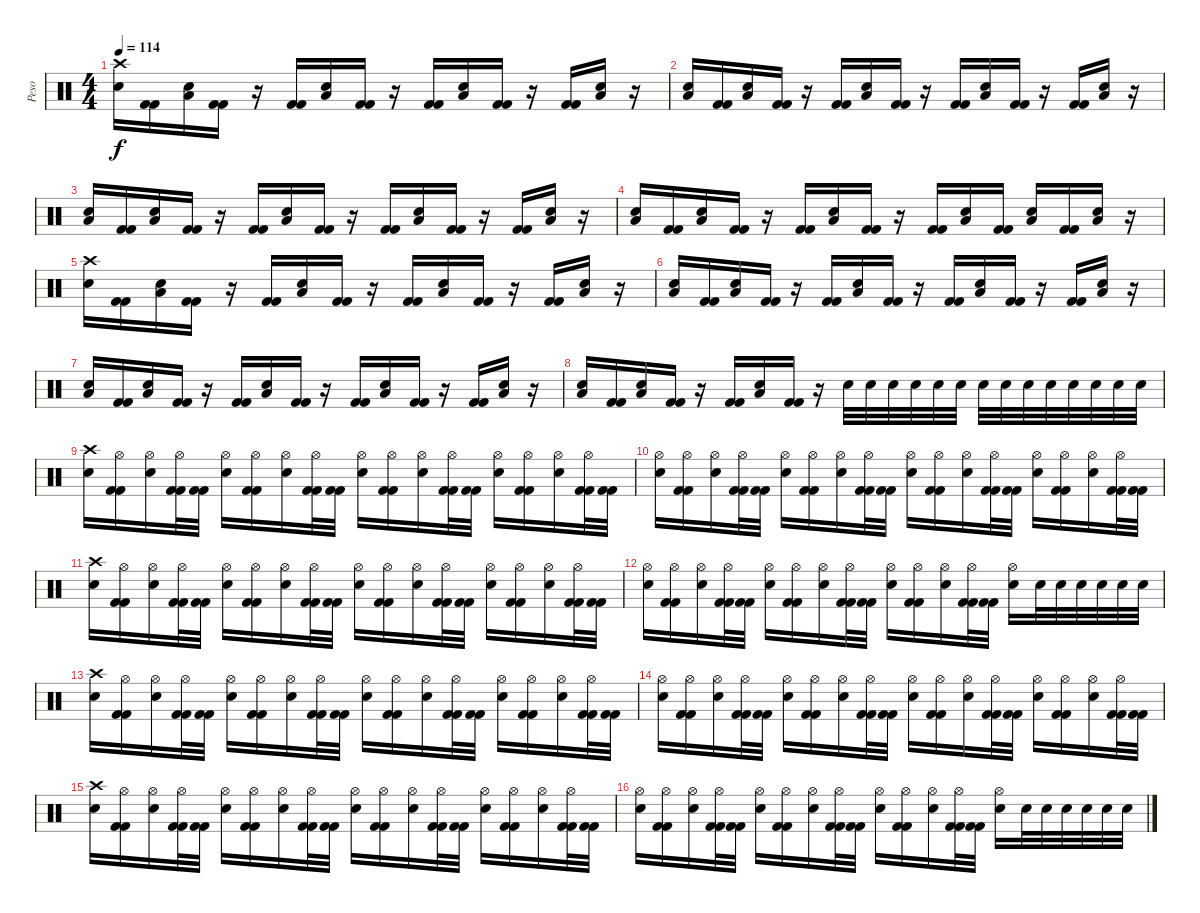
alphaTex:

\track ("Peso" "Peso") {instrument percussion}
\staff {score}
\articulation defaults
\ts (4 4)
\tempo 114
\clef neutral
\ks c
("Crash high (hit)" "Electric Snare (hit)").16{dy f} ("Kick (hit) 2" "Kick (hit) 2").16 ("Low Floor Tom (hit)" "Electric Snare (hit)").16 ("Kick (hit) 2" "Kick (hit) 2").16 r.16 ("Kick (hit) 2" "Kick (hit) 2").16 ("Low Floor Tom (hit)" "Electric Snare (hit)").16 ("Kick (hit) 2" "Kick (hit) 2").16 r.16 ("Kick (hit) 2" "Kick (hit) 2").16 ("Low Floor Tom (hit)" "Electric Snare (hit)").16 ("Kick (hit) 2" "Kick (hit) 2").16 r.16 ("Kick (hit) 2" "Kick (hit) 2").16 ("Low Floor Tom (hit)" "Electric Snare (hit)").16 r.16 |
("Low Floor Tom (hit)" "Electric Snare (hit)").16 ("Kick (hit) 2" "Kick (hit) 2").16 ("Low Floor Tom (hit)" "Electric Snare (hit)").16 ("Kick (hit) 2" "Kick (hit) 2").16 r.16 ("Kick (hit) 2" "Kick (hit) 2").16 ("Low Floor Tom (hit)" "Electric Snare (hit)").16 ("Kick (hit) 2" "Kick (hit) 2").16 r.16 ("Kick (hit) 2" "Kick (hit) 2").16 ("Low Floor Tom (hit)" "Electric Snare (hit)").16 ("Kick (hit) 2" "Kick (hit) 2").16 r.16 ("Kick (hit) 2" "Kick (hit) 2").16 ("Low Floor Tom (hit)" "Electric Snare (hit)").16 r.16 |
("Low Floor Tom (hit)" "Electric Snare (hit)").16 ("Kick (hit) 2" "Kick (hit) 2").16 ("Low Floor Tom (hit)" "Electric Snare (hit)").16 ("Kick (hit) 2" "Kick (hit) 2").16 r.16 ("Kick (hit) 2" "Kick (hit) 2").16 ("Low Floor Tom (hit)" "Electric Snare (hit)").16 ("Kick (hit) 2" "Kick (hit) 2").16 r.16 ("Kick (hit) 2" "Kick (hit) 2").16 ("Low Floor Tom (hit)" "Electric Snare (hit)").16 ("Kick (hit) 2" "Kick (hit) 2").16 r.16 ("Kick (hit) 2" "Kick (hit) 2").16 ("Low Floor Tom (hit)" "Electric Snare (hit)").16 r.16 |
("Low Floor Tom (hit)" "Electric Snare (hit)").16 ("Kick (hit) 2" "Kick (hit) 2").16 ("Low Floor Tom (hit)" "Electric Snare (hit)").16 ("Kick (hit) 2" "Kick (hit) 2").16 r.16 ("Kick (hit) 2" "Kick (hit) 2").16 ("Low Floor Tom (hit)" "Electric Snare (hit)").16 ("Kick (hit) 2" "Kick (hit) 2").16 r.16 ("Kick (hit) 2" "Kick (hit) 2").16 ("Low Floor Tom (hit)" "Electric Snare (hit)").16 ("Kick (hit) 2" "Kick (hit) 2").16 ("Low Floor Tom (hit)" "Electric Snare (hit)").16 ("Kick (hit) 2" "Kick (hit) 2").16 ("Low Floor Tom (hit)" "Electric Snare (hit)").16 r.16 |
("Crash high (hit)" "Electric Snare (hit)").16 ("Kick (hit) 2" "Kick (hit) 2").16 ("Low Floor Tom (hit)" "Electric Snare (hit)").16 ("Kick (hit) 2" "Kick (hit) 2").16 r.16 ("Kick (hit) 2" "Kick (hit) 2").16 ("Low Floor Tom (hit)" "Electric Snare (hit)").16 ("Kick (hit) 2" "Kick (hit) 2").16 r.16 ("Kick (hit) 2" "Kick (hit) 2").16 ("Low Floor Tom (hit)" "Electric Snare (hit)").16 ("Kick (hit) 2" "Kick (hit) 2").16 r.16 ("Kick (hit) 2" "Kick (hit) 2").16 ("Low Floor Tom (hit)" "Electric Snare (hit)").16 r.16 |
("Low Floor Tom (hit)" "Electric Snare (hit)").16 ("Kick (hit) 2" "Kick (hit) 2").16 ("Low Floor Tom (hit)" "Electric Snare (hit)").16 ("Kick (hit) 2" "Kick (hit) 2").16 r.16 ("Kick (hit) 2" "Kick (hit) 2").16 ("Low Floor Tom (hit)" "Electric Snare (hit)").16 ("Kick (hit) 2" "Kick (hit) 2").16 r.16 ("Kick (hit) 2" "Kick (hit) 2").16 ("Low Floor Tom (hit)" "Electric Snare (hit)").16 ("Kick (hit) 2" "Kick (hit) 2").16 r.16 ("Kick (hit) 2" "Kick (hit) 2").16 ("Low Floor Tom (hit)" "Electric Snare (hit)").16 r.16 |
("Low Floor Tom (hit)" "Electric Snare (hit)").16 ("Kick (hit) 2" "Kick (hit) 2").16 ("Low Floor Tom (hit)" "Electric Snare (hit)").16 ("Kick (hit) 2" "Kick (hit) 2").16 r.16 ("Kick (hit) 2" "Kick (hit) 2").16 ("Low Floor Tom (hit)" "Electric Snare (hit)").16 ("Kick (hit) 2" "Kick (hit) 2").16 r.16 ("Kick (hit) 2" "Kick (hit) 2").16 ("Low Floor Tom (hit)" "Electric Snare (hit)").16 ("Kick (hit) 2" "Kick (hit) 2").16 r.16 ("Kick (hit) 2" "Kick (hit) 2").16 ("Low Floor Tom (hit)" "Electric Snare (hit)").16 r.16 |
("Low Floor Tom (hit)" "Electric Snare (hit)").16 ("Kick (hit) 2" "Kick (hit) 2").16 ("Low Floor Tom (hit)" "Electric Snare (hit)").16 ("Kick (hit) 2" "Kick (hit) 2").16 r.16 ("Kick (hit) 2" "Kick (hit) 2").16 ("Low Floor Tom (hit)" "Electric Snare (hit)").16 ("Kick (hit) 2" "Kick (hit) 2").16 r.16 "Electric Snare (hit)".32 "Electric Snare (hit)".32 "Electric Snare (hit)".32 "Electric Snare (hit)".32 "Electric Snare (hit)".32 "Electric Snare (hit)".32 "Electric Snare (hit)".32 "Electric Snare (hit)".32 "Electric Snare (hit)".32 "Electric Snare (hit)".32 "Electric Snare (hit)".32 "Electric Snare (hit)".32 "Electric Snare (hit)".32 "Electric Snare (hit)".32 |
("Crash high (hit)" "Electric Snare (hit)").16 ("Hi-Hat (open)" "Kick (hit) 2" "Kick (hit) 2").16 ("Hi-Hat (open)" "Electric Snare (hit)").16 ("Hi-Hat (open)" "Kick (hit) 2" "Kick (hit) 2").32 ("Kick (hit) 2" "Kick (hit) 2").32 ("Hi-Hat (open)" "Electric Snare (hit)").16 ("Hi-Hat (open)" "Kick (hit) 2" "Kick (hit) 2").16 ("Hi-Hat (open)" "Electric Snare (hit)").16 ("Hi-Hat (open)" "Kick (hit) 2" "Kick (hit) 2").32 ("Kick (hit) 2" "Kick (hit) 2").32 ("Hi-Hat (open)" "Electric Snare (hit)").16 ("Hi-Hat (open)" "Kick (hit) 2" "Kick (hit) 2").16 ("Hi-Hat (open)" "Electric Snare (hit)").16 ("Hi-Hat (open)" "Kick (hit) 2" "Kick (hit) 2").32 ("Kick (hit) 2" "Kick (hit) 2").32 ("Hi-Hat (open)" "Electric Snare (hit)").16 ("Hi-Hat (open)" "Kick (hit) 2" "Kick (hit) 2").16 ("Hi-Hat (open)" "Electric Snare (hit)").16 ("Hi-Hat (open)" "Kick (hit) 2" "Kick (hit) 2").32 ("Kick (hit) 2" "Kick (hit) 2").32 |
("Hi-Hat (open)" "Electric Snare (hit)").16 ("Hi-Hat (open)" "Kick (hit) 2" "Kick (hit) 2").16 ("Hi-Hat (open)" "Electric Snare (hit)").16 ("Hi-Hat (open)" "Kick (hit) 2" "Kick (hit) 2").32 ("Kick (hit) 2" "Kick (hit) 2").32 ("Hi-Hat (open)" "Electric Snare (hit)").16 ("Hi-Hat (open)" "Kick (hit) 2" "Kick (hit) 2").16 ("Hi-Hat (open)" "Electric Snare (hit)").16 ("Hi-Hat (open)" "Kick (hit) 2" "Kick (hit) 2").32 ("Kick (hit) 2" "Kick (hit) 2").32 ("Hi-Hat (open)" "Electric Snare (hit)").16 ("Hi-Hat (open)" "Kick (hit) 2" "Kick (hit) 2").16 ("Hi-Hat (open)" "Electric Snare (hit)").16 ("Hi-Hat (open)" "Kick (hit) 2" "Kick (hit) 2").32 ("Kick (hit) 2" "Kick (hit) 2").32 ("Hi-Hat (open)" "Electric Snare (hit)").16 ("Hi-Hat (open)" "Kick (hit) 2" "Kick (hit) 2").16 ("Hi-Hat (open)" "Electric Snare (hit)").16 ("Hi-Hat (open)" "Kick (hit) 2" "Kick (hit) 2").32 ("Kick (hit) 2" "Kick (hit) 2").32 |
("Crash high (hit)" "Electric Snare (hit)").16 ("Hi-Hat (open)" "Kick (hit) 2" "Kick (hit) 2").16 ("Hi-Hat (open)" "Electric Snare (hit)").16 ("Hi-Hat (open)" "Kick (hit) 2" "Kick (hit) 2").32 ("Kick (hit) 2" "Kick (hit) 2").32 ("Hi-Hat (open)" "Electric Snare (hit)").16 ("Hi-Hat (open)" "Kick (hit) 2" "Kick (hit) 2").16 ("Hi-Hat (open)" "Electric Snare (hit)").16 ("Hi-Hat (open)" "Kick (hit) 2" "Kick (hit) 2").32 ("Kick (hit) 2" "Kick (hit) 2").32 ("Hi-Hat (open)" "Electric Snare (hit)").16 ("Hi-Hat (open)" "Kick (hit) 2" "Kick (hit) 2").16 ("Hi-Hat (open)" "Electric Snare (hit)").16 ("Hi-Hat (open)" "Kick (hit) 2" "Kick (hit) 2").32 ("Kick (hit) 2" "Kick (hit) 2").32 ("Hi-Hat (open)" "Electric Snare (hit)").16 ("Hi-Hat (open)" "Kick (hit) 2" "Kick (hit) 2").16 ("Hi-Hat (open)" "Electric Snare (hit)").16 ("Hi-Hat (open)" "Kick (hit) 2" "Kick (hit) 2").32 ("Kick (hit) 2" "Kick (hit) 2").32 |
("Hi-Hat (open)" "Electric Snare (hit)").16 ("Hi-Hat (open)" "Kick (hit) 2" "Kick (hit) 2").16 ("Hi-Hat (open)" "Electric Snare (hit)").16 ("Hi-Hat (open)" "Kick (hit) 2" "Kick (hit) 2").32 ("Kick (hit) 2" "Kick (hit) 2").32 ("Hi-Hat (open)" "Electric Snare (hit)").16 ("Hi-Hat (open)" "Kick (hit) 2" "Kick (hit) 2").16 ("Hi-Hat (open)" "Electric Snare (hit)").16 ("Hi-Hat (open)" "Kick (hit) 2" "Kick (hit) 2").32 ("Kick (hit) 2" "Kick (hit) 2").32 ("Hi-Hat (open)" "Electric Snare (hit)").16 ("Hi-Hat (open)" "Kick (hit) 2" "Kick (hit) 2").16 ("Hi-Hat (open)" "Electric Snare (hit)").16 ("Hi-Hat (open)" "Kick (hit) 2" "Kick (hit) 2").32 ("Kick (hit) 2" "Kick (hit) 2").32 ("Hi-Hat (open)" "Electric Snare (hit)").16 "Electric Snare (hit)".32 "Electric Snare (hit)".32 "Electric Snare (hit)".32 "Electric Snare (hit)".32 "Electric Snare (hit)".32 "Electric Snare (hit)".32 |
("Crash high (hit)" "Electric Snare (hit)").16 ("Hi-Hat (open)" "Kick (hit) 2" "Kick (hit) 2").16 ("Hi-Hat (open)" "Electric Snare (hit)").16 ("Hi-Hat (open)" "Kick (hit) 2" "Kick (hit) 2").32 ("Kick (hit) 2" "Kick (hit) 2").32 ("Hi-Hat (open)" "Electric Snare (hit)").16 ("Hi-Hat (open)" "Kick (hit) 2" "Kick (hit) 2").16 ("Hi-Hat (open)" "Electric Snare (hit)").16 ("Hi-Hat (open)" "Kick (hit) 2" "Kick (hit) 2").32 ("Kick (hit) 2" "Kick (hit) 2").32 ("Hi-Hat (open)" "Electric Snare (hit)").16 ("Hi-Hat (open)" "Kick (hit) 2" "Kick (hit) 2").16 ("Hi-Hat (open)" "Electric Snare (hit)").16 ("Hi-Hat (open)" "Kick (hit) 2" "Kick (hit) 2").32 ("Kick (hit) 2" "Kick (hit) 2").32 ("Hi-Hat (open)" "Electric Snare (hit)").16 ("Hi-Hat (open)" "Kick (hit) 2" "Kick (hit) 2").16 ("Hi-Hat (open)" "Electric Snare (hit)").16 ("Hi-Hat (open)" "Kick (hit) 2" "Kick (hit) 2").32 ("Kick (hit) 2" "Kick (hit) 2").32 |
("Hi-Hat (open)" "Electric Snare (hit)").16 ("Hi-Hat (open)" "Kick (hit) 2" "Kick (hit) 2").16 ("Hi-Hat (open)" "Electric Snare (hit)").16 ("Hi-Hat (open)" "Kick (hit) 2" "Kick (hit) 2").32 ("Kick (hit) 2" "Kick (hit) 2").32 ("Hi-Hat (open)" "Electric Snare (hit)").16 ("Hi-Hat (open)" "Kick (hit) 2" "Kick (hit) 2").16 ("Hi-Hat (open)" "Electric Snare (hit)").16 ("Hi-Hat (open)" "Kick (hit) 2" "Kick (hit) 2").32 ("Kick (hit) 2" "Kick (hit) 2").32 ("Hi-Hat (open)" "Electric Snare (hit)").16 ("Hi-Hat (open)" "Kick (hit) 2" "Kick (hit) 2").16 ("Hi-Hat (open)" "Electric Snare (hit)").16 ("Hi-Hat (open)" "Kick (hit) 2" "Kick (hit) 2").32 ("Kick (hit) 2" "Kick (hit) 2").32 ("Hi-Hat (open)" "Electric Snare (hit)").16 ("Hi-Hat (open)" "Kick (hit) 2" "Kick (hit) 2").16 ("Hi-Hat (open)" "Electric Snare (hit)").16 ("Hi-Hat (open)" "Kick (hit) 2" "Kick (hit) 2").32 ("Kick (hit) 2" "Kick (hit) 2").32 |
("Crash high (hit)" "Electric Snare (hit)").16 ("Hi-Hat (open)" "Kick (hit) 2" "Kick (hit) 2").16 ("Hi-Hat (open)" "Electric Snare (hit)").16 ("Hi-Hat (open)" "Kick (hit) 2" "Kick (hit) 2").32 ("Kick (hit) 2" "Kick (hit) 2").32 ("Hi-Hat (open)" "Electric Snare (hit)").16 ("Hi-Hat (open)" "Kick (hit) 2" "Kick (hit) 2").16 ("Hi-Hat (open)" "Electric Snare (hit)").16 ("Hi-Hat (open)" "Kick (hit) 2" "Kick (hit) 2").32 ("Kick (hit) 2" "Kick (hit) 2").32 ("Hi-Hat (open)" "Electric Snare (hit)").16 ("Hi-Hat (open)" "Kick (hit) 2" "Kick (hit) 2").16 ("Hi-Hat (open)" "Electric Snare (hit)").16 ("Hi-Hat (open)" "Kick (hit) 2" "Kick (hit) 2").32 ("Kick (hit) 2" "Kick (hit) 2").32 ("Hi-Hat (open)" "Electric Snare (hit)").16 ("Hi-Hat (open)" "Kick (hit) 2" "Kick (hit) 2").16 ("Hi-Hat (open)" "Electric Snare (hit)").16 ("Hi-Hat (open)" "Kick (hit) 2" "Kick (hit) 2").32 ("Kick (hit) 2" "Kick (hit) 2").32 |
("Hi-Hat (open)" "Electric Snare (hit)").16 ("Hi-Hat (open)" "Kick (hit) 2" "Kick (hit) 2").16 ("Hi-Hat (open)" "Electric Snare (hit)").16 ("Hi-Hat (open)" "Kick (hit) 2" "Kick (hit) 2").32 ("Kick (hit) 2" "Kick (hit) 2").32 ("Hi-Hat (open)" "Electric Snare (hit)").16 ("Hi-Hat (open)" "Kick (hit) 2" "Kick (hit) 2").16 ("Hi-Hat (open)" "Electric Snare (hit)").16 ("Hi-Hat (open)" "Kick (hit) 2" "Kick (hit) 2").32 ("Kick (hit) 2" "Kick (hit) 2").32 ("Hi-Hat (open)" "Electric Snare (hit)").16 ("Hi-Hat (open)" "Kick (hit) 2" "Kick (hit) 2").16 ("Hi-Hat (open)" "Electric Snare (hit)").16 ("Hi-Hat (open)" "Kick (hit) 2" "Kick (hit) 2").32 ("Kick (hit) 2" "Kick (hit) 2").32 ("Hi-Hat (open)" "Electric Snare (hit)").16 "Electric Snare (hit)".32 "Electric Snare (hit)".32 "Electric Snare (hit)".32 "Electric Snare (hit)".32 "Electric Snare (hit)".32 "Electric Snare (hit)".32
